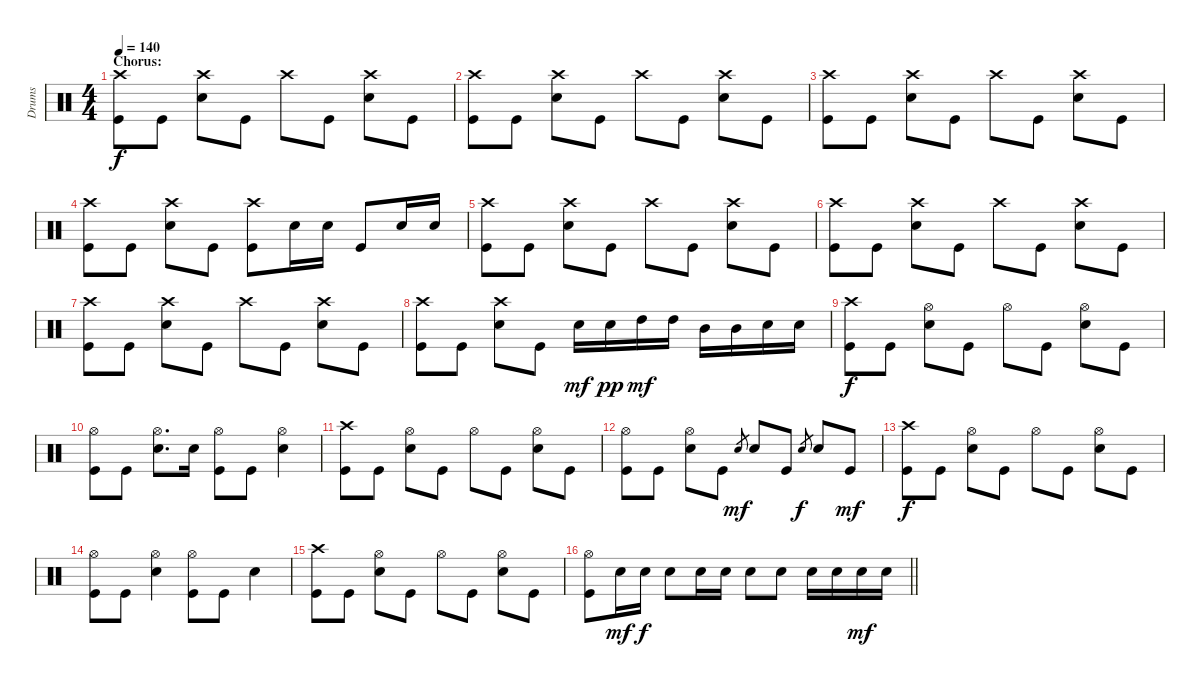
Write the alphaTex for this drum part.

\track ("Drums" "Drums") {instrument percussion}
\staff {score}
\articulation defaults
\ts (4 4)
\section ("" "Chorus:")
\tempo 140
\clef neutral
\ks c
("Kick (hit)" "Crash high (hit)").8{dy f} "Kick (hit)".8 ("Crash high (hit)" "Snare (hit) 2").8 "Kick (hit)".8 "Crash high (hit)".8 "Kick (hit)".8 ("Snare (hit) 2" "Crash high (hit)").8 "Kick (hit)".8 |
("Crash high (hit)" "Kick (hit)").8 "Kick (hit)".8 ("Snare (hit) 2" "Crash high (hit)").8 "Kick (hit)".8 "Crash high (hit)".8 "Kick (hit)".8 ("Snare (hit) 2" "Crash high (hit)").8 "Kick (hit)".8 |
("Crash high (hit)" "Kick (hit)").8 "Kick (hit)".8 ("Crash high (hit)" "Snare (hit) 2").8 "Kick (hit)".8 "Crash high (hit)".8 "Kick (hit)".8 ("Crash high (hit)" "Snare (hit) 2").8 "Kick (hit)".8 |
("Crash high (hit)" "Kick (hit)").8 "Kick (hit)".8 ("Crash high (hit)" "Snare (hit) 2").8 "Kick (hit)".8 ("Kick (hit)" "Crash high (hit)").8 "Snare (hit) 2".16 "Snare (hit) 2".16 "Kick (hit)".8 "Snare (hit) 2".16 "Snare (hit) 2".16 |
("Kick (hit)" "Crash high (hit)").8 "Kick (hit)".8 ("Crash high (hit)" "Snare (hit) 2").8 "Kick (hit)".8 "Crash high (hit)".8 "Kick (hit)".8 ("Snare (hit) 2" "Crash high (hit)").8 "Kick (hit)".8 |
("Crash high (hit)" "Kick (hit)").8 "Kick (hit)".8 ("Snare (hit) 2" "Crash high (hit)").8 "Kick (hit)".8 "Crash high (hit)".8 "Kick (hit)".8 ("Snare (hit) 2" "Crash high (hit)").8 "Kick (hit)".8 |
("Crash high (hit)" "Kick (hit)").8 "Kick (hit)".8 ("Crash high (hit)" "Snare (hit) 2").8 "Kick (hit)".8 "Crash high (hit)".8 "Kick (hit)".8 ("Crash high (hit)" "Snare (hit) 2").8 "Kick (hit)".8 |
("Kick (hit)" "Crash high (hit)").8 "Kick (hit)".8 ("Crash high (hit)" "Snare (hit) 2").8 "Kick (hit)".8 "Snare (hit) 2".16{dy mf} "Snare (hit) 2".16{dy pp} "High Tom (hit)".16{dy mf} "High Tom (hit)".16 "Mid Tom (hit)".16 "Mid Tom (hit)".16 "Snare (hit) 2".16 "Snare (hit) 2".16 |
("Kick (hit)" "Crash high (hit)").8{dy f} "Kick (hit)".8 ("Snare (hit) 2" "Hi-Hat (open)").8 "Kick (hit)".8 "Hi-Hat (open)".8 "Kick (hit)".8 ("Snare (hit) 2" "Hi-Hat (open)").8 "Kick (hit)".8 |
("Kick (hit)" "Hi-Hat (open)").8 "Kick (hit)".8 ("Snare (hit) 2" "Hi-Hat (open)").8{d} "Snare (hit) 2".16 ("Kick (hit)" "Hi-Hat (open)").8 "Kick (hit)".8 ("Snare (hit) 2" "Hi-Hat (open)").4 |
("Kick (hit)" "Crash high (hit)").8 "Kick (hit)".8 ("Snare (hit) 2" "Hi-Hat (open)").8 "Kick (hit)".8 "Hi-Hat (open)".8 "Kick (hit)".8 ("Snare (hit) 2" "Hi-Hat (open)").8 "Kick (hit)".8 |
("Kick (hit)" "Hi-Hat (open)").8 "Kick (hit)".8 ("Snare (hit) 2" "Hi-Hat (open)").8 "Kick (hit)".8 "Snare (hit) 2".8{gr dy mf} "Snare (hit) 2".8 "Kick (hit)".8 "Snare (hit) 2".8{gr dy f} "Snare (hit) 2".8 "Kick (hit)".8{dy mf} |
("Kick (hit)" "Crash high (hit)").8{dy f} "Kick (hit)".8 ("Snare (hit) 2" "Hi-Hat (open)").8 "Kick (hit)".8 "Hi-Hat (open)".8 "Kick (hit)".8 ("Snare (hit) 2" "Hi-Hat (open)").8 "Kick (hit)".8 |
("Kick (hit)" "Hi-Hat (open)").8 "Kick (hit)".8 ("Snare (hit) 2" "Hi-Hat (open)").4 ("Kick (hit)" "Hi-Hat (open)").8 "Kick (hit)".8 "Snare (hit) 2".4 |
("Kick (hit)" "Crash high (hit)").8 "Kick (hit)".8 ("Snare (hit) 2" "Hi-Hat (open)").8 "Kick (hit)".8 "Hi-Hat (open)".8 "Kick (hit)".8 ("Snare (hit) 2" "Hi-Hat (open)").8 "Kick (hit)".8 |
\barLineRight lightlight
("Kick (hit)" "Hi-Hat (open)").8 "Snare (hit) 2".16{dy mf} "Snare (hit) 2".16{dy f} "Snare (hit) 2".8 "Snare (hit) 2".16 "Snare (hit) 2".16 "Snare (hit) 2".8 "Snare (hit) 2".8 "Snare (hit) 2".16 "Snare (hit) 2".16 "Snare (hit) 2".16{dy mf} "Snare (hit) 2".16
